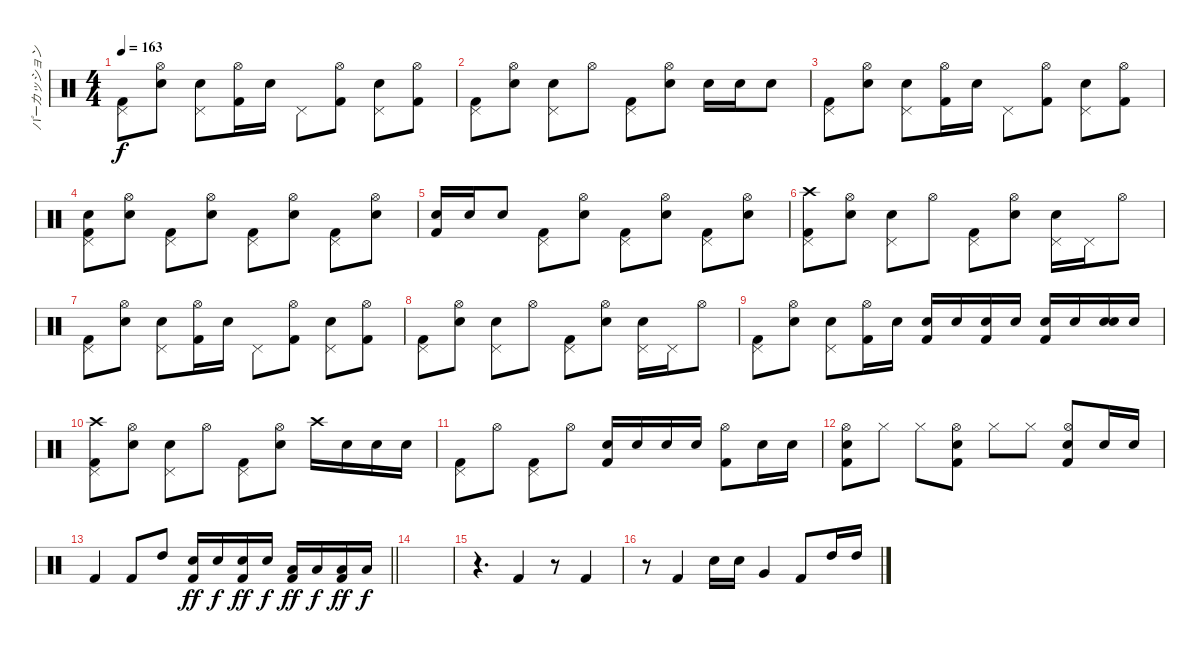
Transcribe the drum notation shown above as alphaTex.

\track ("パーカッション" "パーカッション") {instrument percussion}
\staff {score}
\articulation defaults
\ts (4 4)
\tempo 163
\clef neutral
\ks c
("Pedal Hi-Hat (hit)" "Kick (hit) 2").8{dy f} ("Hi-Hat (open)" "Snare (hit) 2").8 ("Pedal Hi-Hat (hit)" "Snare (hit) 2").8 ("Hi-Hat (open)" "Kick (hit) 2").16 "Snare (hit) 2".16 "Pedal Hi-Hat (hit)".8 ("Hi-Hat (open)" "Kick (hit) 2").8 ("Pedal Hi-Hat (hit)" "Snare (hit) 2").8 ("Hi-Hat (open)" "Kick (hit) 2").8 |
("Pedal Hi-Hat (hit)" "Kick (hit) 2").8 ("Hi-Hat (open)" "Snare (hit) 2").8 ("Pedal Hi-Hat (hit)" "Snare (hit) 2").8 "Hi-Hat (open)".8 ("Pedal Hi-Hat (hit)" "Kick (hit) 2").8 ("Hi-Hat (open)" "Snare (hit) 2").8 "Snare (hit) 2".16 "Snare (hit) 2".16 "Snare (hit) 2".8 |
("Pedal Hi-Hat (hit)" "Kick (hit) 2").8 ("Hi-Hat (open)" "Snare (hit) 2").8 ("Pedal Hi-Hat (hit)" "Snare (hit) 2").8 ("Hi-Hat (open)" "Kick (hit) 2").16 "Snare (hit) 2".16 "Pedal Hi-Hat (hit)".8 ("Hi-Hat (open)" "Kick (hit) 2").8 ("Pedal Hi-Hat (hit)" "Snare (hit) 2").8 ("Hi-Hat (open)" "Kick (hit) 2").8 |
("Pedal Hi-Hat (hit)" "Snare (hit) 2" "Kick (hit) 2").8 ("Hi-Hat (open)" "Snare (hit) 2").8 ("Pedal Hi-Hat (hit)" "Kick (hit) 2").8 ("Hi-Hat (open)" "Snare (hit) 2").8 ("Pedal Hi-Hat (hit)" "Kick (hit) 2").8 ("Hi-Hat (open)" "Snare (hit) 2").8 ("Pedal Hi-Hat (hit)" "Kick (hit) 2").8 ("Hi-Hat (open)" "Snare (hit) 2").8 |
("Snare (hit) 2" "Kick (hit) 2").16 "Snare (hit) 2".16 "Snare (hit) 2".8 ("Pedal Hi-Hat (hit)" "Kick (hit) 2").8 ("Hi-Hat (open)" "Snare (hit) 2").8 ("Pedal Hi-Hat (hit)" "Kick (hit) 2").8 ("Hi-Hat (open)" "Snare (hit) 2").8 ("Pedal Hi-Hat (hit)" "Kick (hit) 2").8 ("Hi-Hat (open)" "Snare (hit) 2").8 |
("Crash high (hit)" "Pedal Hi-Hat (hit)" "Kick (hit) 2").8 ("Hi-Hat (open)" "Snare (hit) 2").8 ("Pedal Hi-Hat (hit)" "Snare (hit) 2").8 "Hi-Hat (open)".8 ("Pedal Hi-Hat (hit)" "Kick (hit) 2").8 ("Hi-Hat (open)" "Snare (hit) 2").8 ("Pedal Hi-Hat (hit)" "Snare (hit) 2").16 "Pedal Hi-Hat (hit)".16 "Hi-Hat (open)".8 |
("Pedal Hi-Hat (hit)" "Kick (hit) 2").8 ("Hi-Hat (open)" "Snare (hit) 2").8 ("Pedal Hi-Hat (hit)" "Snare (hit) 2").8 ("Hi-Hat (open)" "Kick (hit) 2").16 "Snare (hit) 2".16 "Pedal Hi-Hat (hit)".8 ("Hi-Hat (open)" "Kick (hit) 2").8 ("Pedal Hi-Hat (hit)" "Snare (hit) 2").8 ("Hi-Hat (open)" "Kick (hit) 2").8 |
("Pedal Hi-Hat (hit)" "Kick (hit) 2").8 ("Hi-Hat (open)" "Snare (hit) 2").8 ("Pedal Hi-Hat (hit)" "Snare (hit) 2").8 "Hi-Hat (open)".8 ("Pedal Hi-Hat (hit)" "Kick (hit) 2").8 ("Hi-Hat (open)" "Snare (hit) 2").8 ("Pedal Hi-Hat (hit)" "Snare (hit) 2").16 "Pedal Hi-Hat (hit)".16 "Hi-Hat (open)".8 |
("Pedal Hi-Hat (hit)" "Kick (hit) 2").8 ("Hi-Hat (open)" "Snare (hit) 2").8 ("Pedal Hi-Hat (hit)" "Snare (hit) 2").8 ("Hi-Hat (open)" "Kick (hit) 2").16 "Snare (hit) 2".16 ("Snare (hit) 2" "Kick (hit) 2").16 "Snare (hit) 2".16 ("Snare (hit) 2" "Kick (hit) 2").16 "Snare (hit) 2".16 ("Snare (hit) 2" "Kick (hit) 2").16 "Snare (hit) 2".16 ("Snare (hit) 2" "Snare (hit) 2").16 "Snare (hit) 2".16 |
("Crash high (hit)" "Pedal Hi-Hat (hit)" "Kick (hit) 2").8 ("Hi-Hat (open)" "Snare (hit) 2").8 ("Pedal Hi-Hat (hit)" "Snare (hit) 2").8 "Hi-Hat (open)".8 ("Pedal Hi-Hat (hit)" "Kick (hit) 2").8 ("Hi-Hat (open)" "Snare (hit) 2").8 "Crash high (hit)".16 "Snare (hit) 2".16 "Snare (hit) 2".16 "Snare (hit) 2".16 |
("Pedal Hi-Hat (hit)" "Kick (hit) 2").8 "Hi-Hat (open)".8 ("Pedal Hi-Hat (hit)" "Kick (hit) 2").8 "Hi-Hat (open)".8 ("Snare (hit) 2" "Kick (hit) 2").16 "Snare (hit) 2".16 "Snare (hit) 2".16 "Snare (hit) 2".16 ("Hi-Hat (open)" "Kick (hit) 2").8 "Snare (hit) 2".16 "Snare (hit) 2".16 |
("Hi-Hat (open)" "Snare (hit) 2" "Kick (hit) 2").8 "Hi-Hat (closed)".8 "Hi-Hat (closed)".8 ("Hi-Hat (open)" "Snare (hit) 2" "Kick (hit) 2").8 "Hi-Hat (closed)".8 "Hi-Hat (closed)".8 ("Hi-Hat (open)" "Snare (hit) 2" "Kick (hit) 2").8 "Snare (hit) 2".16 "Snare (hit) 2".16 |
\barLineRight lightlight "Kick (hit) 2".4 "Kick (hit) 2".8 "High Tom (hit)".8
("Snare (hit) 2" "Kick (hit) 2").16{dy ff} "Snare (hit) 2".16{dy f} ("Snare (hit) 2" "Kick (hit) 2").16{dy ff} "Snare (hit) 2".16{dy f} ("Low Tom (hit)" "Kick (hit) 2").16{dy ff} "Low Tom (hit)".16{dy f} ("Low Tom (hit)" "Kick (hit) 2").16{dy ff} "Low Tom (hit)".16{dy f} |
|
r.4{d} "Kick (hit) 2".4 r.8 "Kick (hit) 2".4 |
r.8 "Kick (hit) 2".4 "Snare (hit) 2".16 "Snare (hit) 2".16 "Very Low Tom (hit)".4 "Kick (hit) 2".8 "High Tom (hit)".16 "High Tom (hit)".16
